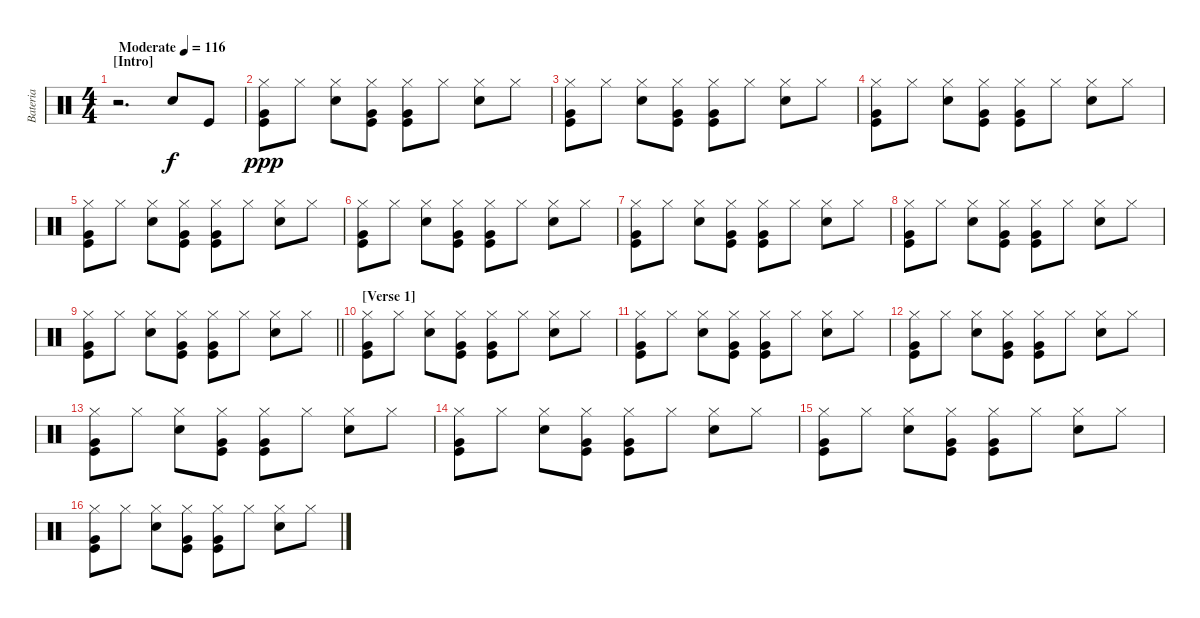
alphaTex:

\track ("Bateria" "Bateria") {instrument percussion}
\staff {score}
\articulation defaults
\ts (4 4)
\section ("" "[Intro]")
\tempo (116 "Moderate")
\clef neutral
\ks c
r.2{d dy f} "Snare (hit) 2".8 "Kick (hit)".8 |
("Hi-Hat (closed)" "Kick (hit)" "Very Low Tom (hit)").8{dy ppp} "Hi-Hat (closed)".8 ("Hi-Hat (closed)" "Snare (hit) 2").8 ("Hi-Hat (closed)" "Kick (hit)" "Very Low Tom (hit)").8 ("Hi-Hat (closed)" "Kick (hit)" "Very Low Tom (hit)").8 "Hi-Hat (closed)".8 ("Hi-Hat (closed)" "Snare (hit) 2").8 "Hi-Hat (closed)".8 |
("Hi-Hat (closed)" "Kick (hit)" "Very Low Tom (hit)").8 "Hi-Hat (closed)".8 ("Hi-Hat (closed)" "Snare (hit) 2").8 ("Hi-Hat (closed)" "Kick (hit)" "Very Low Tom (hit)").8 ("Hi-Hat (closed)" "Kick (hit)" "Very Low Tom (hit)").8 "Hi-Hat (closed)".8 ("Hi-Hat (closed)" "Snare (hit) 2").8 "Hi-Hat (closed)".8 |
("Hi-Hat (closed)" "Kick (hit)" "Very Low Tom (hit)").8 "Hi-Hat (closed)".8 ("Hi-Hat (closed)" "Snare (hit) 2").8 ("Hi-Hat (closed)" "Kick (hit)" "Very Low Tom (hit)").8 ("Hi-Hat (closed)" "Kick (hit)" "Very Low Tom (hit)").8 "Hi-Hat (closed)".8 ("Hi-Hat (closed)" "Snare (hit) 2").8 "Hi-Hat (closed)".8 |
("Hi-Hat (closed)" "Kick (hit)" "Very Low Tom (hit)").8 "Hi-Hat (closed)".8 ("Hi-Hat (closed)" "Snare (hit) 2").8 ("Hi-Hat (closed)" "Kick (hit)" "Very Low Tom (hit)").8 ("Hi-Hat (closed)" "Kick (hit)" "Very Low Tom (hit)").8 "Hi-Hat (closed)".8 ("Hi-Hat (closed)" "Snare (hit) 2").8 "Hi-Hat (closed)".8 |
("Hi-Hat (closed)" "Kick (hit)" "Very Low Tom (hit)").8 "Hi-Hat (closed)".8 ("Hi-Hat (closed)" "Snare (hit) 2").8 ("Hi-Hat (closed)" "Kick (hit)" "Very Low Tom (hit)").8 ("Hi-Hat (closed)" "Kick (hit)" "Very Low Tom (hit)").8 "Hi-Hat (closed)".8 ("Hi-Hat (closed)" "Snare (hit) 2").8 "Hi-Hat (closed)".8 |
("Hi-Hat (closed)" "Kick (hit)" "Very Low Tom (hit)").8 "Hi-Hat (closed)".8 ("Hi-Hat (closed)" "Snare (hit) 2").8 ("Hi-Hat (closed)" "Kick (hit)" "Very Low Tom (hit)").8 ("Hi-Hat (closed)" "Kick (hit)" "Very Low Tom (hit)").8 "Hi-Hat (closed)".8 ("Hi-Hat (closed)" "Snare (hit) 2").8 "Hi-Hat (closed)".8 |
("Hi-Hat (closed)" "Kick (hit)" "Very Low Tom (hit)").8 "Hi-Hat (closed)".8 ("Hi-Hat (closed)" "Snare (hit) 2").8 ("Hi-Hat (closed)" "Kick (hit)" "Very Low Tom (hit)").8 ("Hi-Hat (closed)" "Kick (hit)" "Very Low Tom (hit)").8 "Hi-Hat (closed)".8 ("Hi-Hat (closed)" "Snare (hit) 2").8 "Hi-Hat (closed)".8 |
\barLineRight lightlight
("Hi-Hat (closed)" "Kick (hit)" "Very Low Tom (hit)").8 "Hi-Hat (closed)".8 ("Hi-Hat (closed)" "Snare (hit) 2").8 ("Hi-Hat (closed)" "Kick (hit)" "Very Low Tom (hit)").8 ("Hi-Hat (closed)" "Kick (hit)" "Very Low Tom (hit)").8 "Hi-Hat (closed)".8 ("Hi-Hat (closed)" "Snare (hit) 2").8 "Hi-Hat (closed)".8 |
\section ("" "[Verse 1]")
("Hi-Hat (closed)" "Kick (hit)" "Very Low Tom (hit)").8 "Hi-Hat (closed)".8 ("Hi-Hat (closed)" "Snare (hit) 2").8 ("Hi-Hat (closed)" "Kick (hit)" "Very Low Tom (hit)").8 ("Hi-Hat (closed)" "Kick (hit)" "Very Low Tom (hit)").8 "Hi-Hat (closed)".8 ("Hi-Hat (closed)" "Snare (hit) 2").8 "Hi-Hat (closed)".8 |
("Hi-Hat (closed)" "Kick (hit)" "Very Low Tom (hit)").8 "Hi-Hat (closed)".8 ("Hi-Hat (closed)" "Snare (hit) 2").8 ("Hi-Hat (closed)" "Kick (hit)" "Very Low Tom (hit)").8 ("Hi-Hat (closed)" "Kick (hit)" "Very Low Tom (hit)").8 "Hi-Hat (closed)".8 ("Hi-Hat (closed)" "Snare (hit) 2").8 "Hi-Hat (closed)".8 |
("Hi-Hat (closed)" "Kick (hit)" "Very Low Tom (hit)").8 "Hi-Hat (closed)".8 ("Hi-Hat (closed)" "Snare (hit) 2").8 ("Hi-Hat (closed)" "Kick (hit)" "Very Low Tom (hit)").8 ("Hi-Hat (closed)" "Kick (hit)" "Very Low Tom (hit)").8 "Hi-Hat (closed)".8 ("Hi-Hat (closed)" "Snare (hit) 2").8 "Hi-Hat (closed)".8 |
("Hi-Hat (closed)" "Kick (hit)" "Very Low Tom (hit)").8 "Hi-Hat (closed)".8 ("Hi-Hat (closed)" "Snare (hit) 2").8 ("Hi-Hat (closed)" "Kick (hit)" "Very Low Tom (hit)").8 ("Hi-Hat (closed)" "Kick (hit)" "Very Low Tom (hit)").8 "Hi-Hat (closed)".8 ("Hi-Hat (closed)" "Snare (hit) 2").8 "Hi-Hat (closed)".8 |
("Hi-Hat (closed)" "Kick (hit)" "Very Low Tom (hit)").8 "Hi-Hat (closed)".8 ("Hi-Hat (closed)" "Snare (hit) 2").8 ("Hi-Hat (closed)" "Kick (hit)" "Very Low Tom (hit)").8 ("Hi-Hat (closed)" "Kick (hit)" "Very Low Tom (hit)").8 "Hi-Hat (closed)".8 ("Hi-Hat (closed)" "Snare (hit) 2").8 "Hi-Hat (closed)".8 |
("Hi-Hat (closed)" "Kick (hit)" "Very Low Tom (hit)").8 "Hi-Hat (closed)".8 ("Hi-Hat (closed)" "Snare (hit) 2").8 ("Hi-Hat (closed)" "Kick (hit)" "Very Low Tom (hit)").8 ("Hi-Hat (closed)" "Kick (hit)" "Very Low Tom (hit)").8 "Hi-Hat (closed)".8 ("Hi-Hat (closed)" "Snare (hit) 2").8 "Hi-Hat (closed)".8 |
("Hi-Hat (closed)" "Kick (hit)" "Very Low Tom (hit)").8 "Hi-Hat (closed)".8 ("Hi-Hat (closed)" "Snare (hit) 2").8 ("Hi-Hat (closed)" "Kick (hit)" "Very Low Tom (hit)").8 ("Hi-Hat (closed)" "Kick (hit)" "Very Low Tom (hit)").8 "Hi-Hat (closed)".8 ("Hi-Hat (closed)" "Snare (hit) 2").8 "Hi-Hat (closed)".8
